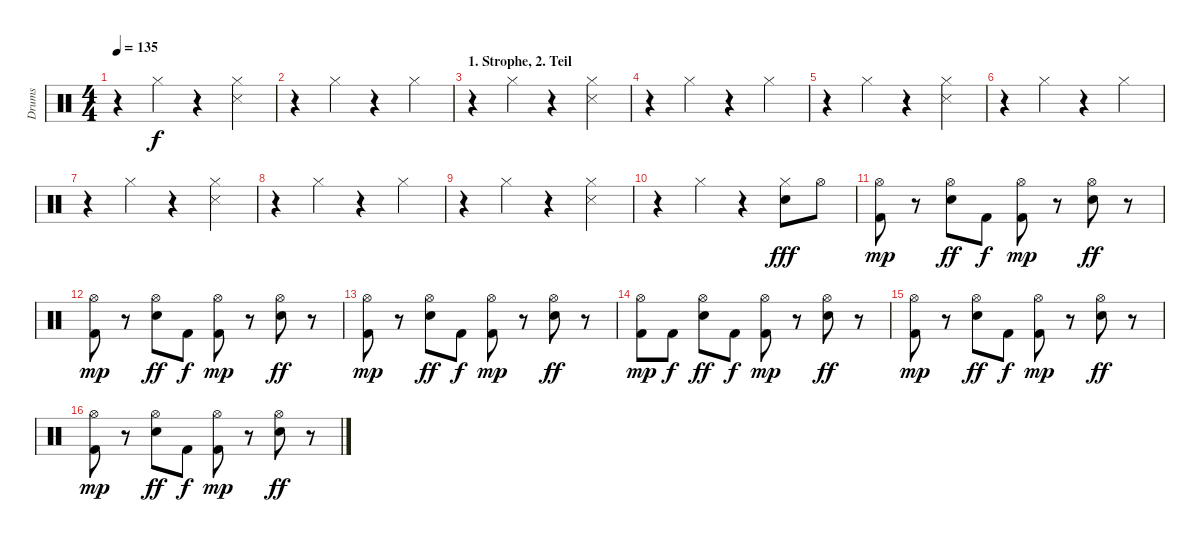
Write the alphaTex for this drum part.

\track ("Drums" "Drums") {instrument percussion}
\staff {score}
\articulation defaults
\ts (4 4)
\tempo 135
\clef neutral
\ks c
r.4{dy f} "Hi-Hat (closed)".4 r.4 ("Hi-Hat (closed)" "Snare (side stick) 3").4 |
r.4 "Hi-Hat (closed)".4 r.4 "Hi-Hat (closed)".4 |
\section ("" "1. Strophe, 2. Teil")
r.4 "Hi-Hat (closed)".4 r.4 ("Hi-Hat (closed)" "Snare (side stick) 3").4 |
r.4 "Hi-Hat (closed)".4 r.4 "Hi-Hat (closed)".4 |
r.4 "Hi-Hat (closed)".4 r.4 ("Hi-Hat (closed)" "Snare (side stick) 3").4 |
r.4 "Hi-Hat (closed)".4 r.4 "Hi-Hat (closed)".4 |
r.4 "Hi-Hat (closed)".4 r.4 ("Hi-Hat (closed)" "Snare (side stick) 3").4 |
r.4 "Hi-Hat (closed)".4 r.4 "Hi-Hat (closed)".4 |
r.4 "Hi-Hat (closed)".4 r.4 ("Hi-Hat (closed)" "Snare (side stick) 3").4 |
r.4 "Hi-Hat (closed)".4 r.4 ("Hi-Hat (closed)" "Electric Snare (hit)").8{dy fff} "Hi-Hat (open)".8 |
("Hi-Hat (open)" "Kick (hit) 2").8{dy mp} r.8 ("Hi-Hat (open)" "Electric Snare (hit)").8{dy ff} "Kick (hit) 2".8{dy f} ("Hi-Hat (open)" "Kick (hit) 2").8{dy mp} r.8 ("Hi-Hat (open)" "Electric Snare (hit)").8{dy ff} r.8 |
("Hi-Hat (open)" "Kick (hit) 2").8{dy mp} r.8 ("Hi-Hat (open)" "Electric Snare (hit)").8{dy ff} "Kick (hit) 2".8{dy f} ("Hi-Hat (open)" "Kick (hit) 2").8{dy mp} r.8 ("Hi-Hat (open)" "Electric Snare (hit)").8{dy ff} r.8 |
("Hi-Hat (open)" "Kick (hit) 2").8{dy mp} r.8 ("Hi-Hat (open)" "Electric Snare (hit)").8{dy ff} "Kick (hit) 2".8{dy f} ("Hi-Hat (open)" "Kick (hit) 2").8{dy mp} r.8 ("Hi-Hat (open)" "Electric Snare (hit)").8{dy ff} r.8 |
("Hi-Hat (open)" "Kick (hit) 2").8{dy mp} "Kick (hit) 2".8{dy f} ("Hi-Hat (open)" "Electric Snare (hit)").8{dy ff} "Kick (hit) 2".8{dy f} ("Hi-Hat (open)" "Kick (hit) 2").8{dy mp} r.8 ("Hi-Hat (open)" "Electric Snare (hit)").8{dy ff} r.8 |
("Hi-Hat (open)" "Kick (hit) 2").8{dy mp} r.8 ("Hi-Hat (open)" "Electric Snare (hit)").8{dy ff} "Kick (hit) 2".8{dy f} ("Hi-Hat (open)" "Kick (hit) 2").8{dy mp} r.8 ("Hi-Hat (open)" "Electric Snare (hit)").8{dy ff} r.8 |
("Hi-Hat (open)" "Kick (hit) 2").8{dy mp} r.8 ("Hi-Hat (open)" "Electric Snare (hit)").8{dy ff} "Kick (hit) 2".8{dy f} ("Hi-Hat (open)" "Kick (hit) 2").8{dy mp} r.8 ("Hi-Hat (open)" "Electric Snare (hit)").8{dy ff} r.8
